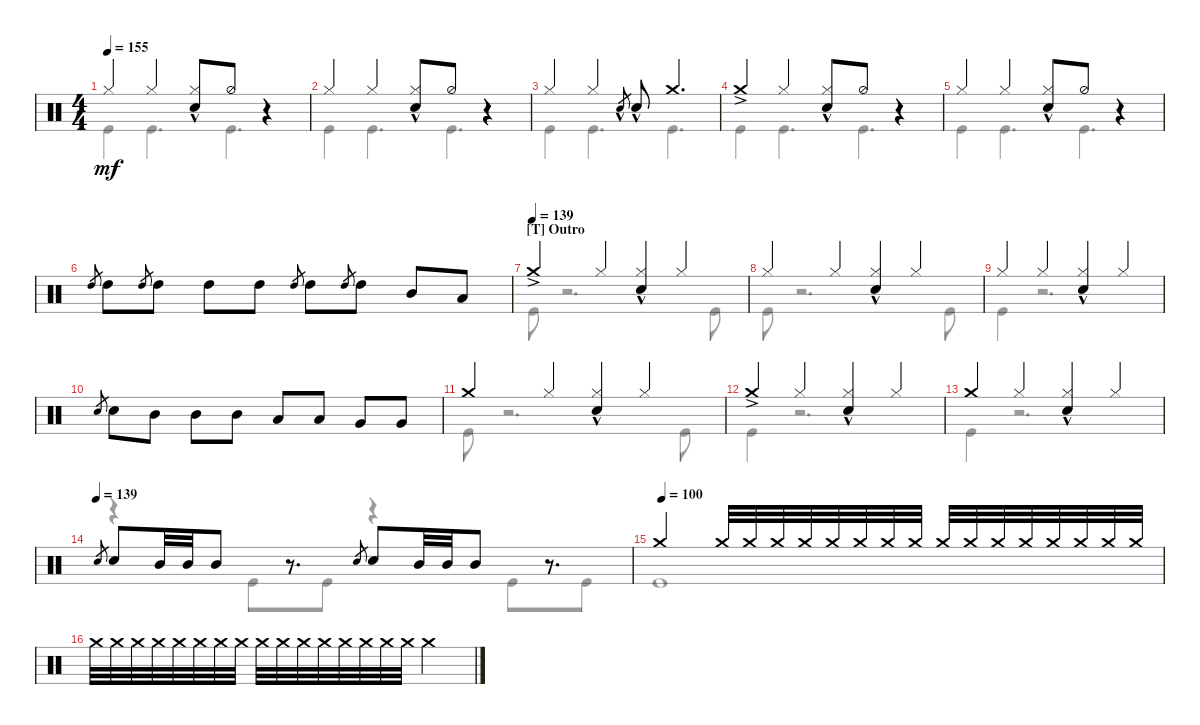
\defaultSystemsLayout 4
\bracketExtendMode groupsimilarinstruments
\singleTrackTrackNamePolicy hidden
\multiTrackTrackNamePolicy hidden
\firstSystemTrackNameOrientation horizontal
\otherSystemsTrackNameOrientation horizontal
\track ("Nicko McBrain" "Drums") {instrument percussion}
\staff {score}
\articulation defaults
\voice
\ts (4 4)
\tempo 155
\clef neutral
\scale
1.02648
\ks c "Hi-Hat (closed)".4{dy mf} "Hi-Hat (closed)".4
("Hi-Hat (closed)" "Snare (hit) 2"{hac}).8 "Hi-Hat (half)".8 r.4 |
\scale
0.973518 "Hi-Hat (closed)".4 "Hi-Hat (closed)".4 ("Hi-Hat (closed)" "Snare (hit) 2"{hac}).8 "Hi-Hat (half)".8 r.4 |
\scale
1.02648 "Hi-Hat (closed)".4 "Hi-Hat (closed)".4 "Snare (hit) 2"{hac}.8{gr} "Snare (hit) 2"{hac}.8 "Crash medium (hit)".4{d} |
\scale
0.973518 "Crash medium (hit)"{ac}.4 "Hi-Hat (closed)".4 ("Hi-Hat (closed)" "Snare (hit) 2"{hac}).8 "Hi-Hat (half)".8 r.4 |
\scale
1.02648 "Hi-Hat (closed)".4 "Hi-Hat (closed)".4 ("Hi-Hat (closed)" "Snare (hit) 2"{hac}).8 "Hi-Hat (half)".8 r.4 |
\scale
0.973518 "High Tom (hit)".8{gr} "High Tom (hit)".8 "High Tom (hit)".8{gr} "High Tom (hit)".8 "High Tom (hit)".8 "High Tom (hit)".8 "High Tom (hit)".8{gr} "High Tom (hit)".8 "High Tom (hit)".8{gr} "High Tom (hit)".8 "Mid Tom (hit)".8 "Low Tom (hit)".8 |
\section ("T" "Outro")
\tempo 139
\scale
1.02648 "Crash medium (hit)"{ac}.4 "Hi-Hat (closed)".4 ("Hi-Hat (closed)" "Snare (hit) 2"{hac}).4 "Hi-Hat (closed)".4 |
\scale
0.973518 "Hi-Hat (closed)".4 "Hi-Hat (closed)".4 ("Hi-Hat (closed)" "Snare (hit) 2"{hac}).4 "Hi-Hat (closed)".4 |
\scale
1.02648 "Hi-Hat (closed)".4 "Hi-Hat (closed)".4 ("Hi-Hat (closed)" "Snare (hit) 2"{hac}).4 "Hi-Hat (closed)".4 |
\scale
0.973518 "Snare (hit) 2".8{gr} "Snare (hit) 2".8 "Mid Tom (hit)".8 "Mid Tom (hit)".8 "Mid Tom (hit)".8 "Low Tom (hit)".8 "Low Tom (hit)".8 "Very Low Tom (hit)".8 "Very Low Tom (hit)".8 |
\scale
1.02648 "Crash medium (hit)".4 "Hi-Hat (closed)".4 ("Hi-Hat (closed)" "Snare (hit) 2"{hac}).4 "Hi-Hat (closed)".4 |
\scale
0.973518 "Crash medium (hit)"{ac}.4 "Hi-Hat (closed)".4 ("Hi-Hat (closed)" "Snare (hit) 2"{hac}).4 "Hi-Hat (closed)".4 |
\scale
1.02648 "Crash medium (hit)".4 "Hi-Hat (closed)".4 ("Hi-Hat (closed)" "Snare (hit) 2"{hac}).4 "Hi-Hat (closed)".4 |
\tempo 139
\scale
0.973518 "Snare (hit) 2".8{gr} "Snare (hit) 2".8 "Mid Tom (hit)".32 "Mid Tom (hit)".32 "Mid Tom (hit)".8 r.8{d} "Snare (hit) 2".8{gr} "Snare (hit) 2".8 "Mid Tom (hit)".32 "Mid Tom (hit)".32 "Mid Tom (hit)".8 r.8{d} |
\tempo (100 0.00625)
\scale
1.02648 "Crash medium (hit)".2 "Crash medium (hit)".32 "Crash medium (hit)".32 "Crash medium (hit)".32 "Crash medium (hit)".32 "Crash medium (hit)".32 "Crash medium (hit)".32 "Crash medium (hit)".32 "Crash medium (hit)".32 "Crash medium (hit)".32 "Crash medium (hit)".32 "Crash medium (hit)".32 "Crash medium (hit)".32 "Crash medium (hit)".32 "Crash medium (hit)".32 "Crash medium (hit)".32 "Crash medium (hit)".32 |
\scale
0.973518 "Crash medium (hit)".32 "Crash medium (hit)".32 "Crash medium (hit)".32 "Crash medium (hit)".32 "Crash medium (hit)".32 "Crash medium (hit)".32 "Crash medium (hit)".32 "Crash medium (hit)".32 "Crash medium (hit)".32 "Crash medium (hit)".32 "Crash medium (hit)".32 "Crash medium (hit)".32 "Crash medium (hit)".32 "Crash medium (hit)".32 "Crash medium (hit)".32 "Crash medium (hit)".32 "Crash medium (hit)".2
\voice
\clef neutral
\ottava regular
\simile none
\scale
1.02648
\ks c "Kick (hit)".4{dy mf} "Kick (hit)".4{d} "Kick (hit)".4{d}
|
\scale
0.973518 "Kick (hit)".4 "Kick (hit)".4{d} "Kick (hit)".4{d} |
\scale
1.02648 "Kick (hit)".4 "Kick (hit)".4{d} "Kick (hit)".4{d} |
\scale
0.973518 "Kick (hit)".4 "Kick (hit)".4{d} "Kick (hit)".4{d} |
\scale
1.02648 "Kick (hit)".4 "Kick (hit)".4{d} "Kick (hit)".4{d} |
\scale
0.973518 |
\scale
1.02648 "Kick (hit)".8 r.2{d} "Kick (hit)".8 |
\scale
0.973518 "Kick (hit)".8 r.2{d} "Kick (hit)".8 |
\scale
1.02648 "Kick (hit)".4 r.2{d} |
\scale
0.973518 |
\scale
1.02648 "Kick (hit)".8 r.2{d} "Kick (hit)".8 |
\scale
0.973518 "Kick (hit)".4 r.2{d} |
\scale
1.02648 "Kick (hit)".4 r.2{d} |
\scale
0.973518 r.4 "Kick (hit)".8 "Kick (hit)".8 r.4 "Kick (hit)".8 "Kick (hit)".8 |
\scale
1.02648 "Kick (hit)".1 |
\scale
0.973518
